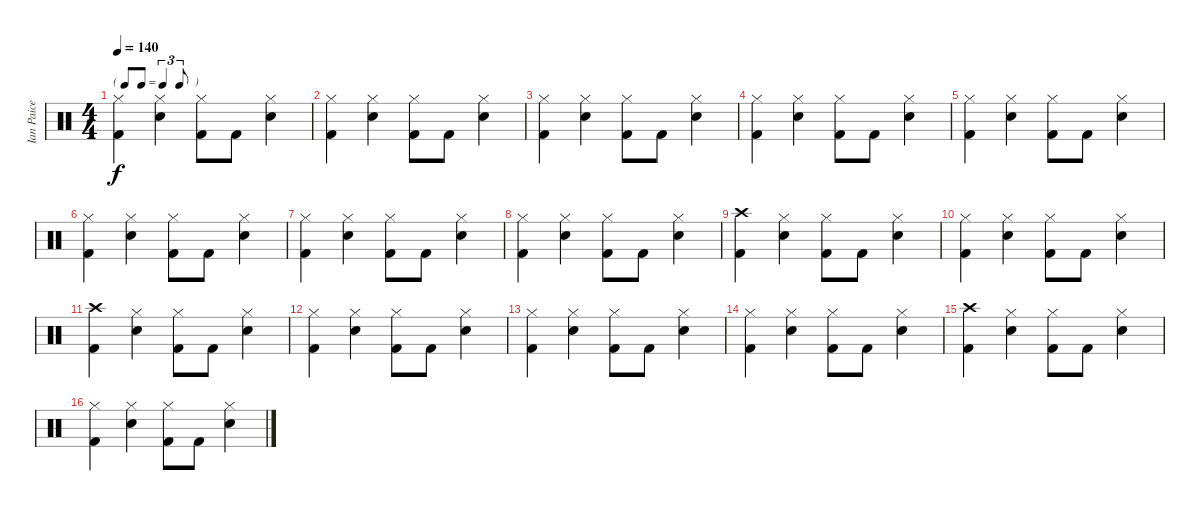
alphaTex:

\track ("Ian Paice" "Ian Paice") {instrument percussion}
\staff {score}
\articulation defaults
\ts (4 4)
\tf triplet8th
\tempo 140
\clef neutral
\ks c
("Hi-Hat (closed)" "Kick (hit) 2").4{dy f} ("Hi-Hat (closed)" "Electric Snare (hit)").4 ("Hi-Hat (closed)" "Kick (hit) 2").8 "Kick (hit) 2".8 ("Hi-Hat (closed)" "Electric Snare (hit)").4 |
("Hi-Hat (closed)" "Kick (hit) 2").4 ("Hi-Hat (closed)" "Electric Snare (hit)").4 ("Hi-Hat (closed)" "Kick (hit) 2").8 "Kick (hit) 2".8 ("Hi-Hat (closed)" "Electric Snare (hit)").4 |
("Hi-Hat (closed)" "Kick (hit) 2").4 ("Hi-Hat (closed)" "Electric Snare (hit)").4 ("Hi-Hat (closed)" "Kick (hit) 2").8 "Kick (hit) 2".8 ("Hi-Hat (closed)" "Electric Snare (hit)").4 |
("Hi-Hat (closed)" "Kick (hit) 2").4 ("Hi-Hat (closed)" "Electric Snare (hit)").4 ("Hi-Hat (closed)" "Kick (hit) 2").8 "Kick (hit) 2".8 ("Hi-Hat (closed)" "Electric Snare (hit)").4 |
("Hi-Hat (closed)" "Kick (hit) 2").4 ("Hi-Hat (closed)" "Electric Snare (hit)").4 ("Hi-Hat (closed)" "Kick (hit) 2").8 "Kick (hit) 2".8 ("Hi-Hat (closed)" "Electric Snare (hit)").4 |
("Hi-Hat (closed)" "Kick (hit) 2").4 ("Hi-Hat (closed)" "Electric Snare (hit)").4 ("Hi-Hat (closed)" "Kick (hit) 2").8 "Kick (hit) 2".8 ("Hi-Hat (closed)" "Electric Snare (hit)").4 |
("Hi-Hat (closed)" "Kick (hit) 2").4 ("Hi-Hat (closed)" "Electric Snare (hit)").4 ("Hi-Hat (closed)" "Kick (hit) 2").8 "Kick (hit) 2".8 ("Hi-Hat (closed)" "Electric Snare (hit)").4 |
("Hi-Hat (closed)" "Kick (hit) 2").4 ("Hi-Hat (closed)" "Electric Snare (hit)").4 ("Hi-Hat (closed)" "Kick (hit) 2").8 "Kick (hit) 2".8 ("Hi-Hat (closed)" "Electric Snare (hit)").4 |
("Crash high (hit)" "Kick (hit) 2").4 ("Hi-Hat (closed)" "Electric Snare (hit)").4 ("Hi-Hat (closed)" "Kick (hit) 2").8 "Kick (hit) 2".8 ("Hi-Hat (closed)" "Electric Snare (hit)").4 |
("Hi-Hat (closed)" "Kick (hit) 2").4 ("Hi-Hat (closed)" "Electric Snare (hit)").4 ("Hi-Hat (closed)" "Kick (hit) 2").8 "Kick (hit) 2".8 ("Hi-Hat (closed)" "Electric Snare (hit)").4 |
("Crash high (hit)" "Kick (hit) 2").4 ("Hi-Hat (closed)" "Electric Snare (hit)").4 ("Hi-Hat (closed)" "Kick (hit) 2").8 "Kick (hit) 2".8 ("Hi-Hat (closed)" "Electric Snare (hit)").4 |
("Hi-Hat (closed)" "Kick (hit) 2").4 ("Hi-Hat (closed)" "Electric Snare (hit)").4 ("Hi-Hat (closed)" "Kick (hit) 2").8 "Kick (hit) 2".8 ("Hi-Hat (closed)" "Electric Snare (hit)").4 |
("Hi-Hat (closed)" "Kick (hit) 2").4 ("Hi-Hat (closed)" "Electric Snare (hit)").4 ("Hi-Hat (closed)" "Kick (hit) 2").8 "Kick (hit) 2".8 ("Hi-Hat (closed)" "Electric Snare (hit)").4 |
("Hi-Hat (closed)" "Kick (hit) 2").4 ("Hi-Hat (closed)" "Electric Snare (hit)").4 ("Hi-Hat (closed)" "Kick (hit) 2").8 "Kick (hit) 2".8 ("Hi-Hat (closed)" "Electric Snare (hit)").4 |
("Crash high (hit)" "Kick (hit) 2").4 ("Hi-Hat (closed)" "Electric Snare (hit)").4 ("Hi-Hat (closed)" "Kick (hit) 2").8 "Kick (hit) 2".8 ("Hi-Hat (closed)" "Electric Snare (hit)").4 |
("Hi-Hat (closed)" "Kick (hit) 2").4 ("Hi-Hat (closed)" "Electric Snare (hit)").4 ("Hi-Hat (closed)" "Kick (hit) 2").8 "Kick (hit) 2".8 ("Hi-Hat (closed)" "Electric Snare (hit)").4
